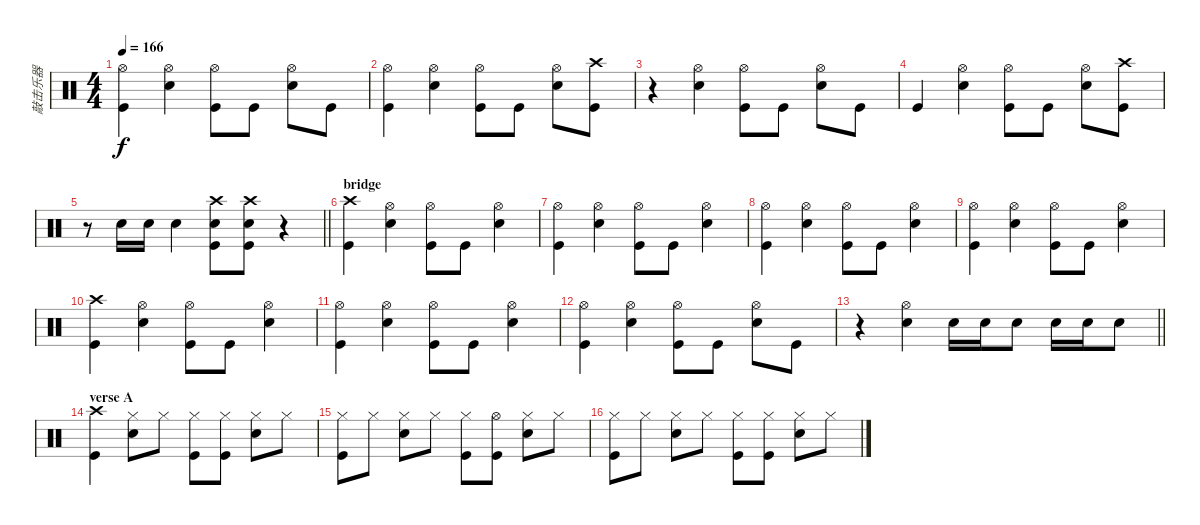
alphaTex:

\track ("敲击乐器" "敲击乐器") {instrument percussion}
\staff {score}
\articulation defaults
\ts (4 4)
\tempo 166
\clef neutral
\ks c
("Kick (hit)" "Hi-Hat (open)").4{dy f} ("Hi-Hat (open)" "Snare (hit) 2").4 ("Kick (hit)" "Hi-Hat (open)").8 "Kick (hit)".8 ("Snare (hit) 2" "Hi-Hat (open)").8 "Kick (hit)".8 |
("Kick (hit)" "Hi-Hat (open)").4 ("Hi-Hat (open)" "Snare (hit) 2").4 ("Kick (hit)" "Hi-Hat (open)").8 "Kick (hit)".8 ("Snare (hit) 2" "Hi-Hat (open)").8 ("Kick (hit)" "Crash high (hit)").8 |
r.4 ("Hi-Hat (open)" "Snare (hit) 2").4 ("Hi-Hat (open)" "Kick (hit)").8 "Kick (hit)".8 ("Snare (hit) 2" "Hi-Hat (open)").8 "Kick (hit)".8 |
"Kick (hit)".4 ("Hi-Hat (open)" "Snare (hit) 2").4 ("Hi-Hat (open)" "Kick (hit)").8 "Kick (hit)".8 ("Snare (hit) 2" "Hi-Hat (open)").8 ("Kick (hit)" "Crash high (hit)").8 |
\barLineRight lightlight
r.8 "Snare (hit) 2".16 "Snare (hit) 2".16 "Snare (hit) 2".4 ("Snare (hit) 2" "Crash high (hit)" "Kick (hit)").8 ("Snare (hit) 2" "Crash high (hit)" "Kick (hit)").8 r.4 |
\section ("" "bridge")
("Kick (hit)" "Crash high (hit)").4 ("Snare (hit) 2" "Hi-Hat (open)").4 ("Kick (hit)" "Hi-Hat (open)").8 "Kick (hit)".8 ("Snare (hit) 2" "Hi-Hat (open)").4 |
("Kick (hit)" "Hi-Hat (open)").4 ("Snare (hit) 2" "Hi-Hat (open)").4 ("Kick (hit)" "Hi-Hat (open)").8 "Kick (hit)".8 ("Snare (hit) 2" "Hi-Hat (open)").4 |
("Kick (hit)" "Hi-Hat (open)").4 ("Snare (hit) 2" "Hi-Hat (open)").4 ("Kick (hit)" "Hi-Hat (open)").8 "Kick (hit)".8 ("Snare (hit) 2" "Hi-Hat (open)").4 |
("Kick (hit)" "Hi-Hat (open)").4 ("Snare (hit) 2" "Hi-Hat (open)").4 ("Kick (hit)" "Hi-Hat (open)").8 "Kick (hit)".8 ("Snare (hit) 2" "Hi-Hat (open)").4 |
("Kick (hit)" "Crash high (hit)").4 ("Snare (hit) 2" "Hi-Hat (open)").4 ("Kick (hit)" "Hi-Hat (open)").8 "Kick (hit)".8 ("Snare (hit) 2" "Hi-Hat (open)").4 |
("Kick (hit)" "Hi-Hat (open)").4 ("Snare (hit) 2" "Hi-Hat (open)").4 ("Kick (hit)" "Hi-Hat (open)").8 "Kick (hit)".8 ("Snare (hit) 2" "Hi-Hat (open)").4 |
("Kick (hit)" "Hi-Hat (open)").4 ("Snare (hit) 2" "Hi-Hat (open)").4 ("Kick (hit)" "Hi-Hat (open)").8 "Kick (hit)".8 ("Snare (hit) 2" "Hi-Hat (open)").8 "Kick (hit)".8 |
\barLineRight lightlight
r.4 ("Snare (hit) 2" "Hi-Hat (open)").4 "Snare (hit) 2".16 "Snare (hit) 2".16 "Snare (hit) 2".8 "Snare (hit) 2".16 "Snare (hit) 2".16 "Snare (hit) 2".8 |
\section ("" "verse A")
("Crash high (hit)" "Kick (hit)").4 ("Hi-Hat (closed)" "Snare (hit) 2").8 "Hi-Hat (closed)".8 ("Hi-Hat (closed)" "Kick (hit)").8 ("Hi-Hat (closed)" "Kick (hit)").8 ("Hi-Hat (closed)" "Snare (hit) 2").8 "Hi-Hat (closed)".8 |
("Hi-Hat (closed)" "Kick (hit)").8 "Hi-Hat (closed)".8 ("Hi-Hat (closed)" "Snare (hit) 2").8 "Hi-Hat (closed)".8 ("Hi-Hat (closed)" "Kick (hit)").8 ("Hi-Hat (open)" "Kick (hit)").8 ("Hi-Hat (closed)" "Snare (hit) 2").8 "Hi-Hat (closed)".8 |
("Hi-Hat (closed)" "Kick (hit)").8 "Hi-Hat (closed)".8 ("Hi-Hat (closed)" "Snare (hit) 2").8 "Hi-Hat (closed)".8 ("Hi-Hat (closed)" "Kick (hit)").8 ("Hi-Hat (closed)" "Kick (hit)").8 ("Hi-Hat (closed)" "Snare (hit) 2").8 "Hi-Hat (closed)".8
